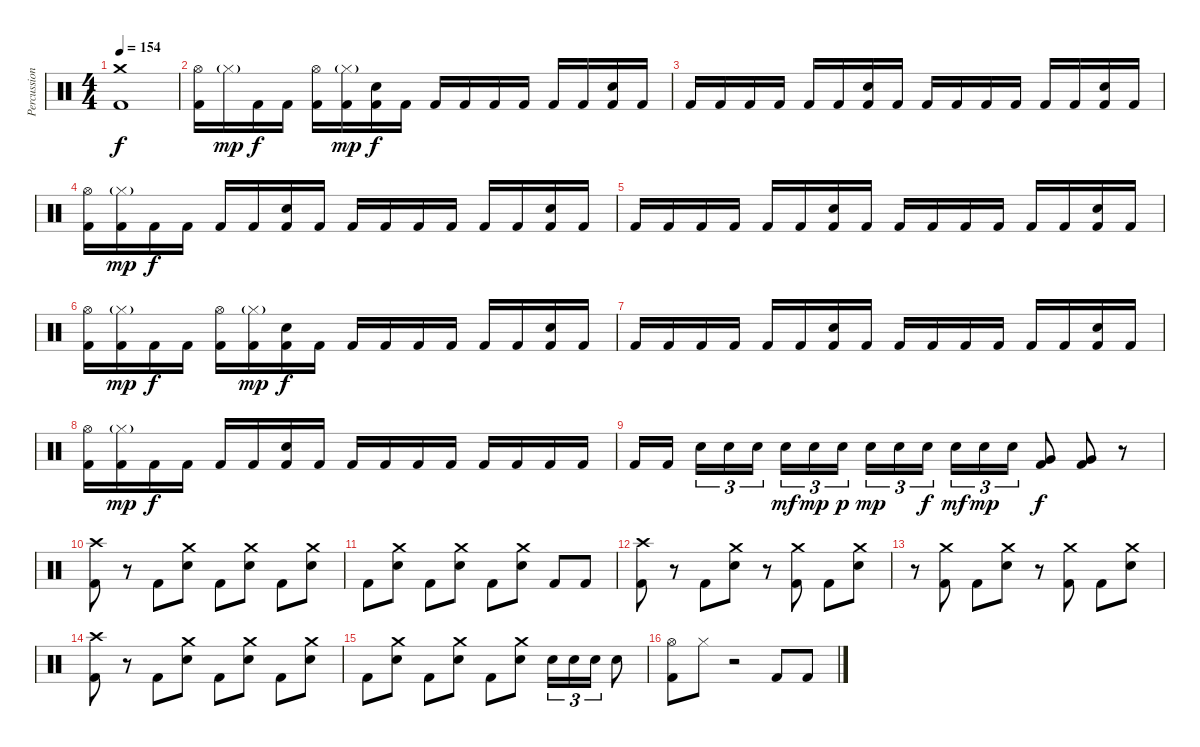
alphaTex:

\track ("Percussion" "Percussion") {instrument percussion}
\staff {score}
\articulation defaults
\ts (4 4)
\tempo 154
\clef neutral
\ks c
("Crash medium (hit)" "Kick (hit) 2").1{dy f} |
("Hi-Hat (open)" "Kick (hit) 2").16 "Hi-Hat (closed)"{g}.16{dy mp} "Kick (hit) 2".16{dy f} "Kick (hit) 2".16 ("Hi-Hat (open)" "Kick (hit) 2").16 ("Hi-Hat (closed)"{g} "Kick (hit) 2").16{dy mp} ("Electric Snare (hit)" "Kick (hit) 2").16{dy f} "Kick (hit) 2".16 "Kick (hit) 2".16 "Kick (hit) 2".16 "Kick (hit) 2".16 "Kick (hit) 2".16 "Kick (hit) 2".16 "Kick (hit) 2".16 ("Electric Snare (hit)" "Kick (hit) 2").16 "Kick (hit) 2".16 |
"Kick (hit) 2".16 "Kick (hit) 2".16 "Kick (hit) 2".16 "Kick (hit) 2".16 "Kick (hit) 2".16 "Kick (hit) 2".16 ("Electric Snare (hit)" "Kick (hit) 2").16 "Kick (hit) 2".16 "Kick (hit) 2".16 "Kick (hit) 2".16 "Kick (hit) 2".16 "Kick (hit) 2".16 "Kick (hit) 2".16 "Kick (hit) 2".16 ("Electric Snare (hit)" "Kick (hit) 2").16 "Kick (hit) 2".16 |
("Hi-Hat (open)" "Kick (hit) 2").16 ("Hi-Hat (closed)"{g} "Kick (hit) 2").16{dy mp} "Kick (hit) 2".16{dy f} "Kick (hit) 2".16 "Kick (hit) 2".16 "Kick (hit) 2".16 ("Electric Snare (hit)" "Kick (hit) 2").16 "Kick (hit) 2".16 "Kick (hit) 2".16 "Kick (hit) 2".16 "Kick (hit) 2".16 "Kick (hit) 2".16 "Kick (hit) 2".16 "Kick (hit) 2".16 ("Electric Snare (hit)" "Kick (hit) 2").16 "Kick (hit) 2".16 |
"Kick (hit) 2".16 "Kick (hit) 2".16 "Kick (hit) 2".16 "Kick (hit) 2".16 "Kick (hit) 2".16 "Kick (hit) 2".16 ("Electric Snare (hit)" "Kick (hit) 2").16 "Kick (hit) 2".16 "Kick (hit) 2".16 "Kick (hit) 2".16 "Kick (hit) 2".16 "Kick (hit) 2".16 "Kick (hit) 2".16 "Kick (hit) 2".16 ("Electric Snare (hit)" "Kick (hit) 2").16 "Kick (hit) 2".16 |
("Hi-Hat (open)" "Kick (hit) 2").16 ("Hi-Hat (closed)"{g} "Kick (hit) 2").16{dy mp} "Kick (hit) 2".16{dy f} "Kick (hit) 2".16 ("Hi-Hat (open)" "Kick (hit) 2").16 ("Hi-Hat (closed)"{g} "Kick (hit) 2").16{dy mp} ("Electric Snare (hit)" "Kick (hit) 2").16{dy f} "Kick (hit) 2".16 "Kick (hit) 2".16 "Kick (hit) 2".16 "Kick (hit) 2".16 "Kick (hit) 2".16 "Kick (hit) 2".16 "Kick (hit) 2".16 ("Electric Snare (hit)" "Kick (hit) 2").16 "Kick (hit) 2".16 |
"Kick (hit) 2".16 "Kick (hit) 2".16 "Kick (hit) 2".16 "Kick (hit) 2".16 "Kick (hit) 2".16 "Kick (hit) 2".16 ("Electric Snare (hit)" "Kick (hit) 2").16 "Kick (hit) 2".16 "Kick (hit) 2".16 "Kick (hit) 2".16 "Kick (hit) 2".16 "Kick (hit) 2".16 "Kick (hit) 2".16 "Kick (hit) 2".16 ("Electric Snare (hit)" "Kick (hit) 2").16 "Kick (hit) 2".16 |
("Hi-Hat (open)" "Kick (hit) 2").16 ("Hi-Hat (closed)"{g} "Kick (hit) 2").16{dy mp} "Kick (hit) 2".16{dy f} "Kick (hit) 2".16 "Kick (hit) 2".16 "Kick (hit) 2".16 ("Electric Snare (hit)" "Kick (hit) 2").16 "Kick (hit) 2".16 "Kick (hit) 2".16 "Kick (hit) 2".16 "Kick (hit) 2".16 "Kick (hit) 2".16 "Kick (hit) 2".16 "Kick (hit) 2".16 "Kick (hit) 2".16 "Kick (hit) 2".16 |
"Kick (hit) 2".16 "Kick (hit) 2".16{beam splitsecondary} "Electric Snare (hit)".16{tu (3 2)} "Electric Snare (hit)".16{tu (3 2)} "Electric Snare (hit)".16{tu (3 2)} "Electric Snare (hit)".16{tu (3 2) dy mf} "Electric Snare (hit)".16{tu (3 2) dy mp} "Electric Snare (hit)".16{tu (3 2) dy p beam splitsecondary} "Electric Snare (hit)".16{tu (3 2) dy mp} "Electric Snare (hit)".16{tu (3 2)} "Electric Snare (hit)".16{tu (3 2) dy f} "Electric Snare (hit)".16{tu (3 2) dy mf} "Electric Snare (hit)".16{tu (3 2) dy mp} "Electric Snare (hit)".16{tu (3 2)} ("Very Low Tom (hit)" "Kick (hit) 2").8{dy f} ("Very Low Tom (hit)" "Kick (hit) 2").8 r.8 |
("Crash high (hit)" "Kick (hit) 2").8 r.8 "Kick (hit) 2".8 ("Crash medium (hit)" "Electric Snare (hit)").8 "Kick (hit) 2".8 ("Crash medium (hit)" "Electric Snare (hit)").8 "Kick (hit) 2".8 ("Crash medium (hit)" "Electric Snare (hit)").8 |
"Kick (hit) 2".8 ("Crash medium (hit)" "Electric Snare (hit)").8 "Kick (hit) 2".8 ("Crash medium (hit)" "Electric Snare (hit)").8 "Kick (hit) 2".8 ("Crash medium (hit)" "Electric Snare (hit)").8 "Kick (hit) 2".8 "Kick (hit) 2".8 |
("Crash high (hit)" "Kick (hit) 2").8 r.8 "Kick (hit) 2".8 ("Crash medium (hit)" "Electric Snare (hit)").8 r.8 ("Crash medium (hit)" "Kick (hit) 2").8 "Kick (hit) 2".8 ("Crash medium (hit)" "Electric Snare (hit)").8 |
r.8 ("Crash medium (hit)" "Kick (hit) 2").8 "Kick (hit) 2".8 ("Crash medium (hit)" "Electric Snare (hit)").8 r.8 ("Crash medium (hit)" "Kick (hit) 2").8 "Kick (hit) 2".8 ("Crash medium (hit)" "Electric Snare (hit)").8 |
("Crash high (hit)" "Kick (hit) 2").8 r.8 "Kick (hit) 2".8 ("Crash medium (hit)" "Electric Snare (hit)").8 "Kick (hit) 2".8 ("Crash medium (hit)" "Electric Snare (hit)").8 "Kick (hit) 2".8 ("Crash medium (hit)" "Electric Snare (hit)").8 |
"Kick (hit) 2".8 ("Crash medium (hit)" "Electric Snare (hit)").8 "Kick (hit) 2".8 ("Crash medium (hit)" "Electric Snare (hit)").8 "Kick (hit) 2".8 ("Crash medium (hit)" "Electric Snare (hit)").8 "Electric Snare (hit)".16{tu (3 2)} "Electric Snare (hit)".16{tu (3 2)} "Electric Snare (hit)".16{tu (3 2)} "Electric Snare (hit)".8 |
("Hi-Hat (open)" "Kick (hit) 2").8 "Hi-Hat (closed)".8 r.2 "Kick (hit) 2".8 "Kick (hit) 2".8
